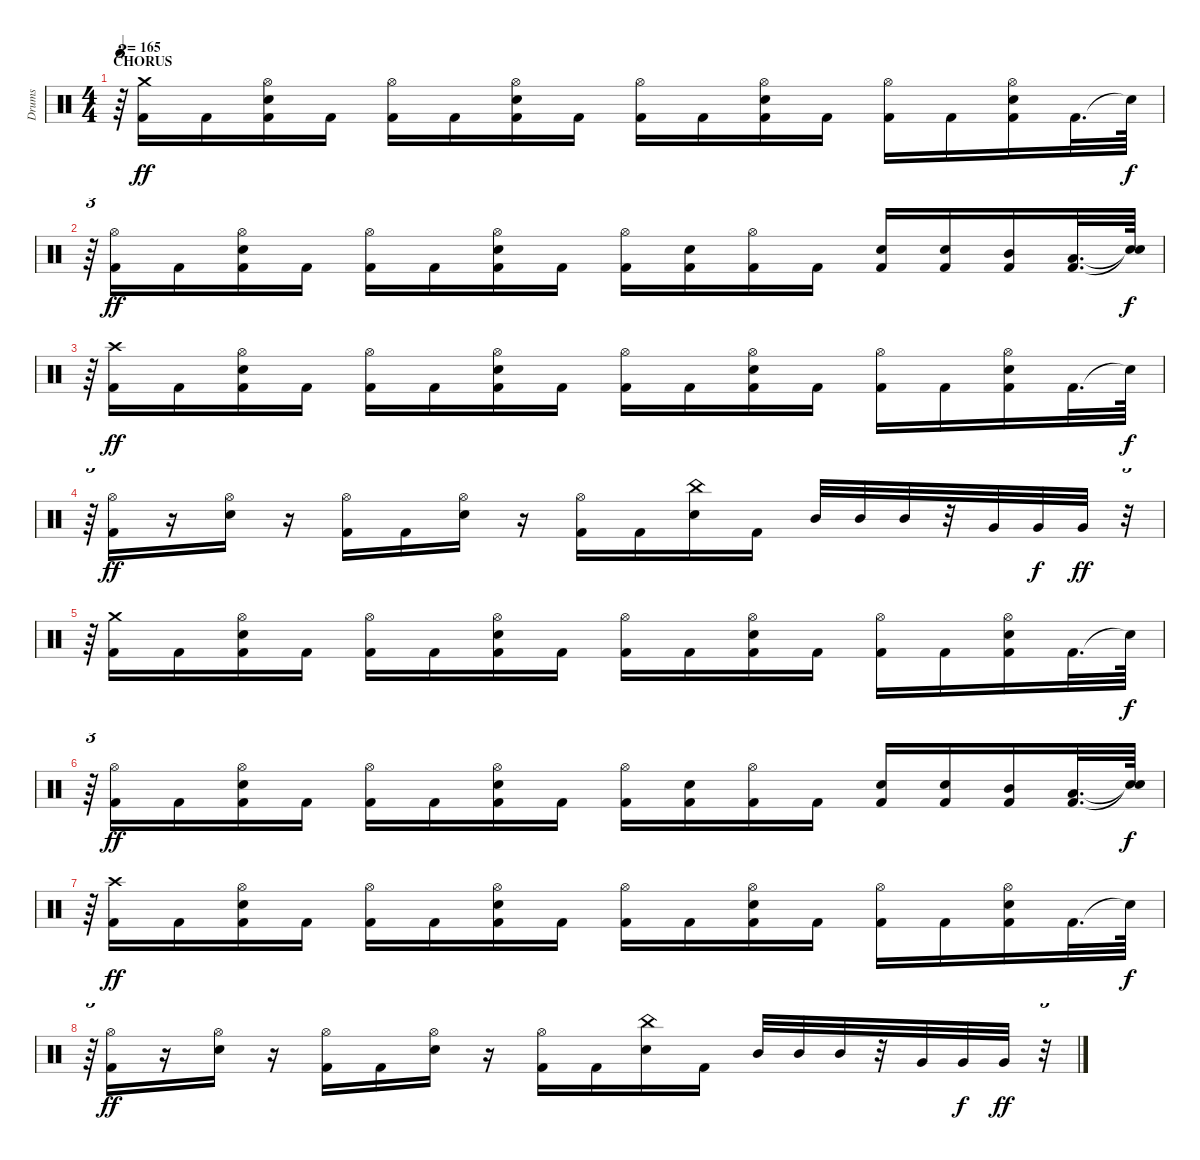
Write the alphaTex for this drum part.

\track ("Drums" "Drums") {instrument percussion}
\staff {score}
\articulation defaults
\ts (4 4)
\section ("" "CHORUS")
\tempo 165
\clef neutral
\ks c
r.64{tu (3 2) dy f} ("Kick (hit) 2" "Crash medium (hit)").16{dy ff} "Kick (hit) 2".16 ("Kick (hit) 2" "Snare (hit) 2" "Hi-Hat (open)").16 "Kick (hit) 2".16 ("Kick (hit) 2" "Hi-Hat (open)").16 "Kick (hit) 2".16 ("Kick (hit) 2" "Snare (hit) 2" "Hi-Hat (open)").16 "Kick (hit) 2".16 ("Kick (hit) 2" "Hi-Hat (open)").16 "Kick (hit) 2".16 ("Kick (hit) 2" "Snare (hit) 2" "Hi-Hat (open)").16 "Kick (hit) 2".16 ("Kick (hit) 2" "Hi-Hat (open)").16 "Kick (hit) 2".16 ("Kick (hit) 2" "Snare (hit) 2" "Hi-Hat (open)").16 "Kick (hit) 2".32{d} "Snare (hit)"{t}.64{dy f} |
r.64{tu (3 2)} ("Kick (hit) 2" "Hi-Hat (open)").16{dy ff} "Kick (hit) 2".16 ("Kick (hit) 2" "Snare (hit) 2" "Hi-Hat (open)").16 "Kick (hit) 2".16 ("Kick (hit) 2" "Hi-Hat (open)").16 "Kick (hit) 2".16 ("Kick (hit) 2" "Snare (hit) 2" "Hi-Hat (open)").16 "Kick (hit) 2".16 ("Kick (hit) 2" "Hi-Hat (open)").16 ("Kick (hit) 2" "Snare (hit) 2").16 ("Kick (hit) 2" "Hi-Hat (open)").16 "Kick (hit) 2".16 ("Kick (hit) 2" "Snare (hit) 2").16 ("Kick (hit) 2" "Snare (hit) 2").16 ("Kick (hit) 2" "Mid Tom (hit)").16 ("Kick (hit) 2" "Low Tom (hit)").32{d} ("Snare (hit)"{t} "Snare (hit)"{t}).64{dy f} |
r.64{tu (3 2)} ("Kick (hit) 2" "Crash high (hit)").16{dy ff} "Kick (hit) 2".16 ("Kick (hit) 2" "Snare (hit) 2" "Hi-Hat (open)").16 "Kick (hit) 2".16 ("Kick (hit) 2" "Hi-Hat (open)").16 "Kick (hit) 2".16 ("Kick (hit) 2" "Snare (hit) 2" "Hi-Hat (open)").16 "Kick (hit) 2".16 ("Kick (hit) 2" "Hi-Hat (open)").16 "Kick (hit) 2".16 ("Kick (hit) 2" "Snare (hit) 2" "Hi-Hat (open)").16 "Kick (hit) 2".16 ("Kick (hit) 2" "Hi-Hat (open)").16 "Kick (hit) 2".16 ("Kick (hit) 2" "Snare (hit) 2" "Hi-Hat (open)").16 "Kick (hit) 2".32{d} "Snare (hit)"{t}.64{dy f} |
r.64{tu (3 2)} ("Kick (hit) 2" "Hi-Hat (open)").16{dy ff} r.16 ("Snare (hit) 2" "Hi-Hat (open)").16 r.16 ("Kick (hit) 2" "Hi-Hat (open)").16 "Kick (hit) 2".16 ("Snare (hit) 2" "Hi-Hat (open)").16 r.16 ("Kick (hit) 2" "Hi-Hat (open)").16 "Kick (hit) 2".16 ("Snare (hit) 2" "China (hit)").16 "Kick (hit) 2".16 "Mid Tom (hit)".32 "Mid Tom (hit)".32 "Mid Tom (hit)".32 r.32 "Very Low Tom (hit)".32 "Very Low Tom (hit)".32{dy f} "Very Low Tom (hit)".32{dy ff} r.32{tu (3 2)} |
r.64{tu (3 2)} ("Kick (hit) 2" "Crash medium (hit)").16 "Kick (hit) 2".16 ("Kick (hit) 2" "Snare (hit) 2" "Hi-Hat (open)").16 "Kick (hit) 2".16 ("Kick (hit) 2" "Hi-Hat (open)").16 "Kick (hit) 2".16 ("Kick (hit) 2" "Snare (hit) 2" "Hi-Hat (open)").16 "Kick (hit) 2".16 ("Kick (hit) 2" "Hi-Hat (open)").16 "Kick (hit) 2".16 ("Kick (hit) 2" "Snare (hit) 2" "Hi-Hat (open)").16 "Kick (hit) 2".16 ("Kick (hit) 2" "Hi-Hat (open)").16 "Kick (hit) 2".16 ("Kick (hit) 2" "Snare (hit) 2" "Hi-Hat (open)").16 "Kick (hit) 2".32{d} "Snare (hit)"{t}.64{dy f} |
r.64{tu (3 2)} ("Kick (hit) 2" "Hi-Hat (open)").16{dy ff} "Kick (hit) 2".16 ("Kick (hit) 2" "Snare (hit) 2" "Hi-Hat (open)").16 "Kick (hit) 2".16 ("Kick (hit) 2" "Hi-Hat (open)").16 "Kick (hit) 2".16 ("Kick (hit) 2" "Snare (hit) 2" "Hi-Hat (open)").16 "Kick (hit) 2".16 ("Kick (hit) 2" "Hi-Hat (open)").16 ("Kick (hit) 2" "Snare (hit) 2").16 ("Kick (hit) 2" "Hi-Hat (open)").16 "Kick (hit) 2".16 ("Kick (hit) 2" "Snare (hit) 2").16 ("Kick (hit) 2" "Snare (hit) 2").16 ("Kick (hit) 2" "Mid Tom (hit)").16 ("Kick (hit) 2" "Low Tom (hit)").32{d} ("Snare (hit)"{t} "Snare (hit)"{t}).64{dy f} |
r.64{tu (3 2)} ("Kick (hit) 2" "Crash high (hit)").16{dy ff} "Kick (hit) 2".16 ("Kick (hit) 2" "Snare (hit) 2" "Hi-Hat (open)").16 "Kick (hit) 2".16 ("Kick (hit) 2" "Hi-Hat (open)").16 "Kick (hit) 2".16 ("Kick (hit) 2" "Snare (hit) 2" "Hi-Hat (open)").16 "Kick (hit) 2".16 ("Kick (hit) 2" "Hi-Hat (open)").16 "Kick (hit) 2".16 ("Kick (hit) 2" "Snare (hit) 2" "Hi-Hat (open)").16 "Kick (hit) 2".16 ("Kick (hit) 2" "Hi-Hat (open)").16 "Kick (hit) 2".16 ("Kick (hit) 2" "Snare (hit) 2" "Hi-Hat (open)").16 "Kick (hit) 2".32{d} "Snare (hit)"{t}.64{dy f} |
r.64{tu (3 2)} ("Kick (hit) 2" "Hi-Hat (open)").16{dy ff} r.16 ("Snare (hit) 2" "Hi-Hat (open)").16 r.16 ("Kick (hit) 2" "Hi-Hat (open)").16 "Kick (hit) 2".16 ("Snare (hit) 2" "Hi-Hat (open)").16 r.16 ("Kick (hit) 2" "Hi-Hat (open)").16 "Kick (hit) 2".16 ("Snare (hit) 2" "China (hit)").16 "Kick (hit) 2".16 "Mid Tom (hit)".32 "Mid Tom (hit)".32 "Mid Tom (hit)".32 r.32 "Very Low Tom (hit)".32 "Very Low Tom (hit)".32{dy f} "Very Low Tom (hit)".32{dy ff} r.32{tu (3 2)}
